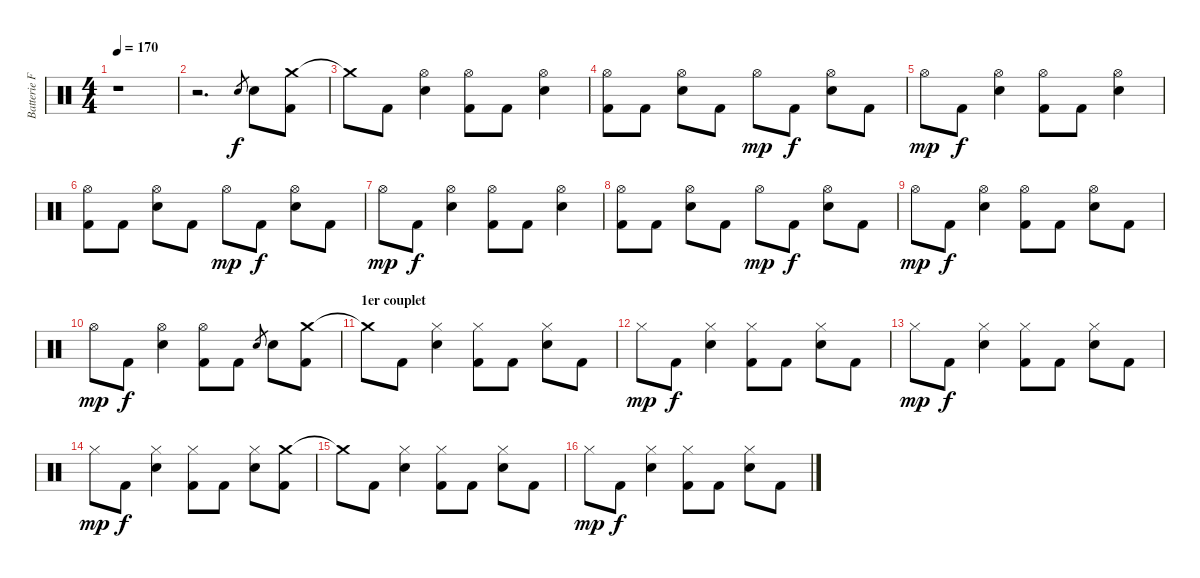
\track ("Batterie Franck" "Batterie F") {instrument percussion}
\staff {score}
\articulation defaults
\ts (4 4)
\tempo 170
\clef neutral
\ks c
r.1{dy f} |
r.2{d} "Snare (hit) 2".8{gr} "Snare (hit) 2".8 ("Crash medium (hit)" "Kick (hit) 2").8 |
"Crash medium (hit)"{t}.8 "Kick (hit) 2".8 ("Hi-Hat (open)" "Snare (hit) 2").4 ("Hi-Hat (open)" "Kick (hit) 2").8 "Kick (hit) 2".8 ("Hi-Hat (open)" "Snare (hit) 2").4 |
("Hi-Hat (open)" "Kick (hit) 2").8 "Kick (hit) 2".8 ("Hi-Hat (open)" "Snare (hit) 2").8 "Kick (hit) 2".8 "Hi-Hat (open)".8{dy mp} "Kick (hit) 2".8{dy f} ("Hi-Hat (open)" "Snare (hit) 2").8 "Kick (hit) 2".8 |
"Hi-Hat (open)".8{dy mp} "Kick (hit) 2".8{dy f} ("Hi-Hat (open)" "Snare (hit) 2").4 ("Hi-Hat (open)" "Kick (hit) 2").8 "Kick (hit) 2".8 ("Hi-Hat (open)" "Snare (hit) 2").4 |
("Hi-Hat (open)" "Kick (hit) 2").8 "Kick (hit) 2".8 ("Hi-Hat (open)" "Snare (hit) 2").8 "Kick (hit) 2".8 "Hi-Hat (open)".8{dy mp} "Kick (hit) 2".8{dy f} ("Hi-Hat (open)" "Snare (hit) 2").8 "Kick (hit) 2".8 |
"Hi-Hat (open)".8{dy mp} "Kick (hit) 2".8{dy f} ("Hi-Hat (open)" "Snare (hit) 2").4 ("Hi-Hat (open)" "Kick (hit) 2").8 "Kick (hit) 2".8 ("Hi-Hat (open)" "Snare (hit) 2").4 |
("Hi-Hat (open)" "Kick (hit) 2").8 "Kick (hit) 2".8 ("Hi-Hat (open)" "Snare (hit) 2").8 "Kick (hit) 2".8 "Hi-Hat (open)".8{dy mp} "Kick (hit) 2".8{dy f} ("Hi-Hat (open)" "Snare (hit) 2").8 "Kick (hit) 2".8 |
"Hi-Hat (open)".8{dy mp} "Kick (hit) 2".8{dy f} ("Hi-Hat (open)" "Snare (hit) 2").4 ("Hi-Hat (open)" "Kick (hit) 2").8 "Kick (hit) 2".8 ("Hi-Hat (open)" "Snare (hit) 2").8 "Kick (hit) 2".8 |
"Hi-Hat (open)".8{dy mp} "Kick (hit) 2".8{dy f} ("Hi-Hat (open)" "Snare (hit) 2").4 ("Hi-Hat (open)" "Kick (hit) 2").8 "Kick (hit) 2".8 "Snare (hit) 2".8{gr} "Snare (hit) 2".8 ("Crash medium (hit)" "Kick (hit) 2").8 |
\section ("" "1er couplet")
"Crash medium (hit)"{t}.8 "Kick (hit) 2".8 ("Hi-Hat (closed)" "Snare (hit) 2").4 ("Hi-Hat (closed)" "Kick (hit) 2").8 "Kick (hit) 2".8 ("Hi-Hat (closed)" "Snare (hit) 2").8 "Kick (hit) 2".8 |
"Hi-Hat (closed)".8{dy mp} "Kick (hit) 2".8{dy f} ("Hi-Hat (closed)" "Snare (hit) 2").4 ("Hi-Hat (closed)" "Kick (hit) 2").8 "Kick (hit) 2".8 ("Hi-Hat (closed)" "Snare (hit) 2").8 "Kick (hit) 2".8 |
"Hi-Hat (closed)".8{dy mp} "Kick (hit) 2".8{dy f} ("Hi-Hat (closed)" "Snare (hit) 2").4 ("Hi-Hat (closed)" "Kick (hit) 2").8 "Kick (hit) 2".8 ("Hi-Hat (closed)" "Snare (hit) 2").8 "Kick (hit) 2".8 |
"Hi-Hat (closed)".8{dy mp} "Kick (hit) 2".8{dy f} ("Hi-Hat (closed)" "Snare (hit) 2").4 ("Hi-Hat (closed)" "Kick (hit) 2").8 "Kick (hit) 2".8 ("Hi-Hat (closed)" "Snare (hit) 2").8 ("Crash medium (hit)" "Kick (hit) 2").8 |
"Crash medium (hit)"{t}.8 "Kick (hit) 2".8 ("Hi-Hat (closed)" "Snare (hit) 2").4 ("Hi-Hat (closed)" "Kick (hit) 2").8 "Kick (hit) 2".8 ("Hi-Hat (closed)" "Snare (hit) 2").8 "Kick (hit) 2".8 |
"Hi-Hat (closed)".8{dy mp} "Kick (hit) 2".8{dy f} ("Hi-Hat (closed)" "Snare (hit) 2").4 ("Hi-Hat (closed)" "Kick (hit) 2").8 "Kick (hit) 2".8 ("Hi-Hat (closed)" "Snare (hit) 2").8 "Kick (hit) 2".8
